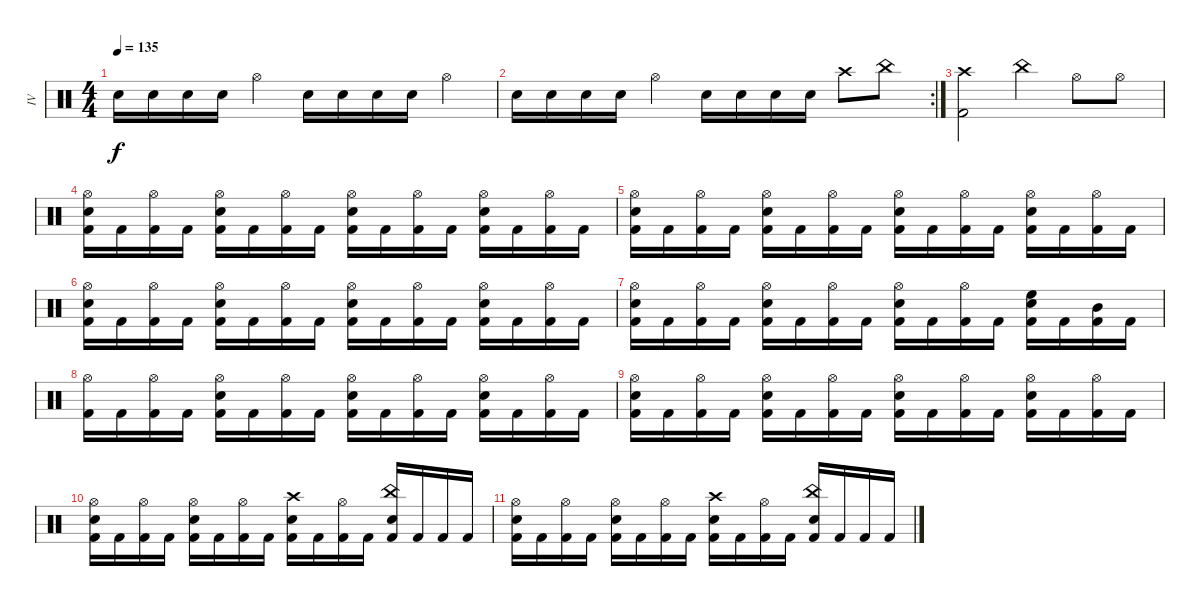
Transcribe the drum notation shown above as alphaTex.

\track ("IV" "IV") {instrument percussion}
\staff {score}
\articulation defaults
\ts (4 4)
\tempo 135
\clef neutral
\ks c "Snare (hit) 2".16{dy f} "Snare (hit) 2".16 "Snare (hit) 2".16 "Snare (hit) 2".16 "Hi-Hat (open)".4 "Snare (hit) 2".16 "Snare (hit) 2".16 "Snare (hit) 2".16 "Snare (hit) 2".16 "Hi-Hat (open)".4
|
\rc 2 "Snare (hit) 2".16 "Snare (hit) 2".16 "Snare (hit) 2".16 "Snare (hit) 2".16 "Hi-Hat (open)".4 "Snare (hit) 2".16 "Snare (hit) 2".16 "Snare (hit) 2".16 "Snare (hit) 2".16 "Crash high (hit)".8 "China (hit)".8
|
("Crash high (hit)" "Kick (hit) 2").2 "China (hit)".4 "Hi-Hat (open)".8 "Hi-Hat (open)".8 |
("Hi-Hat (open)" "Snare (hit) 2" "Kick (hit) 2").16 "Kick (hit) 2".16 ("Hi-Hat (open)" "Kick (hit) 2").16 "Kick (hit) 2".16 ("Hi-Hat (open)" "Snare (hit) 2" "Kick (hit) 2").16 "Kick (hit) 2".16 ("Hi-Hat (open)" "Kick (hit) 2").16 "Kick (hit) 2".16 ("Hi-Hat (open)" "Snare (hit) 2" "Kick (hit) 2").16 "Kick (hit) 2".16 ("Hi-Hat (open)" "Kick (hit) 2").16 "Kick (hit) 2".16 ("Hi-Hat (open)" "Snare (hit) 2" "Kick (hit) 2").16 "Kick (hit) 2".16 ("Hi-Hat (open)" "Kick (hit) 2").16 "Kick (hit) 2".16 |
("Hi-Hat (open)" "Snare (hit) 2" "Kick (hit) 2").16 "Kick (hit) 2".16 ("Hi-Hat (open)" "Kick (hit) 2").16 "Kick (hit) 2".16 ("Hi-Hat (open)" "Snare (hit) 2" "Kick (hit) 2").16 "Kick (hit) 2".16 ("Hi-Hat (open)" "Kick (hit) 2").16 "Kick (hit) 2".16 ("Hi-Hat (open)" "Snare (hit) 2" "Kick (hit) 2").16 "Kick (hit) 2".16 ("Hi-Hat (open)" "Kick (hit) 2").16 "Kick (hit) 2".16 ("Hi-Hat (open)" "Snare (hit) 2" "Kick (hit) 2").16 "Kick (hit) 2".16 ("Hi-Hat (open)" "Kick (hit) 2").16 "Kick (hit) 2".16 |
("Hi-Hat (open)" "Snare (hit) 2" "Kick (hit) 2").16 "Kick (hit) 2".16 ("Hi-Hat (open)" "Kick (hit) 2").16 "Kick (hit) 2".16 ("Hi-Hat (open)" "Snare (hit) 2" "Kick (hit) 2").16 "Kick (hit) 2".16 ("Hi-Hat (open)" "Kick (hit) 2").16 "Kick (hit) 2".16 ("Hi-Hat (open)" "Snare (hit) 2" "Kick (hit) 2").16 "Kick (hit) 2".16 ("Hi-Hat (open)" "Kick (hit) 2").16 "Kick (hit) 2".16 ("Hi-Hat (open)" "Snare (hit) 2" "Kick (hit) 2").16 "Kick (hit) 2".16 ("Hi-Hat (open)" "Kick (hit) 2").16 "Kick (hit) 2".16 |
("Hi-Hat (open)" "Snare (hit) 2" "Kick (hit) 2").16 "Kick (hit) 2".16 ("Hi-Hat (open)" "Kick (hit) 2").16 "Kick (hit) 2".16 ("Hi-Hat (open)" "Snare (hit) 2" "Kick (hit) 2").16 "Kick (hit) 2".16 ("Hi-Hat (open)" "Kick (hit) 2").16 "Kick (hit) 2".16 ("Hi-Hat (open)" "Snare (hit) 2" "Kick (hit) 2").16 "Kick (hit) 2".16 ("Hi-Hat (open)" "Kick (hit) 2").16 "Kick (hit) 2".16 ("High Floor Tom (hit)" "Snare (hit) 2" "Kick (hit) 2").16 "Kick (hit) 2".16 ("Mid Tom (hit)" "Kick (hit) 2").16 "Kick (hit) 2".16 |
("Hi-Hat (open)" "Kick (hit) 2").16 "Kick (hit) 2".16 ("Hi-Hat (open)" "Kick (hit) 2").16 "Kick (hit) 2".16 ("Hi-Hat (open)" "Snare (hit) 2" "Kick (hit) 2").16 "Kick (hit) 2".16 ("Hi-Hat (open)" "Kick (hit) 2").16 "Kick (hit) 2".16 ("Hi-Hat (open)" "Snare (hit) 2" "Kick (hit) 2").16 "Kick (hit) 2".16 ("Hi-Hat (open)" "Kick (hit) 2").16 "Kick (hit) 2".16 ("Hi-Hat (open)" "Snare (hit) 2" "Kick (hit) 2").16 "Kick (hit) 2".16 ("Hi-Hat (open)" "Kick (hit) 2").16 "Kick (hit) 2".16 |
("Hi-Hat (open)" "Snare (hit) 2" "Kick (hit) 2").16 "Kick (hit) 2".16 ("Hi-Hat (open)" "Kick (hit) 2").16 "Kick (hit) 2".16 ("Hi-Hat (open)" "Snare (hit) 2" "Kick (hit) 2").16 "Kick (hit) 2".16 ("Hi-Hat (open)" "Kick (hit) 2").16 "Kick (hit) 2".16 ("Hi-Hat (open)" "Snare (hit) 2" "Kick (hit) 2").16 "Kick (hit) 2".16 ("Hi-Hat (open)" "Kick (hit) 2").16 "Kick (hit) 2".16 ("Hi-Hat (open)" "Snare (hit) 2" "Kick (hit) 2").16 "Kick (hit) 2".16 ("Hi-Hat (open)" "Kick (hit) 2").16 "Kick (hit) 2".16 |
("Hi-Hat (open)" "Snare (hit) 2" "Kick (hit) 2").16 "Kick (hit) 2".16 ("Hi-Hat (open)" "Kick (hit) 2").16 "Kick (hit) 2".16 ("Hi-Hat (open)" "Snare (hit) 2" "Kick (hit) 2").16 "Kick (hit) 2".16 ("Hi-Hat (open)" "Kick (hit) 2").16 "Kick (hit) 2".16 ("Crash high (hit)" "Snare (hit) 2" "Kick (hit) 2").16 "Kick (hit) 2".16 ("Hi-Hat (open)" "Kick (hit) 2").16 "Kick (hit) 2".16 ("China (hit)" "Snare (hit) 2" "Kick (hit) 2").16 "Kick (hit) 2".16 "Kick (hit) 2".16 "Kick (hit) 2".16 |
("Hi-Hat (open)" "Snare (hit) 2" "Kick (hit) 2").16 "Kick (hit) 2".16 ("Hi-Hat (open)" "Kick (hit) 2").16 "Kick (hit) 2".16 ("Hi-Hat (open)" "Snare (hit) 2" "Kick (hit) 2").16 "Kick (hit) 2".16 ("Hi-Hat (open)" "Kick (hit) 2").16 "Kick (hit) 2".16 ("Crash high (hit)" "Snare (hit) 2" "Kick (hit) 2").16 "Kick (hit) 2".16 ("Hi-Hat (open)" "Kick (hit) 2").16 "Kick (hit) 2".16 ("China (hit)" "Snare (hit) 2" "Kick (hit) 2").16 "Kick (hit) 2".16 "Kick (hit) 2".16 "Kick (hit) 2".16
